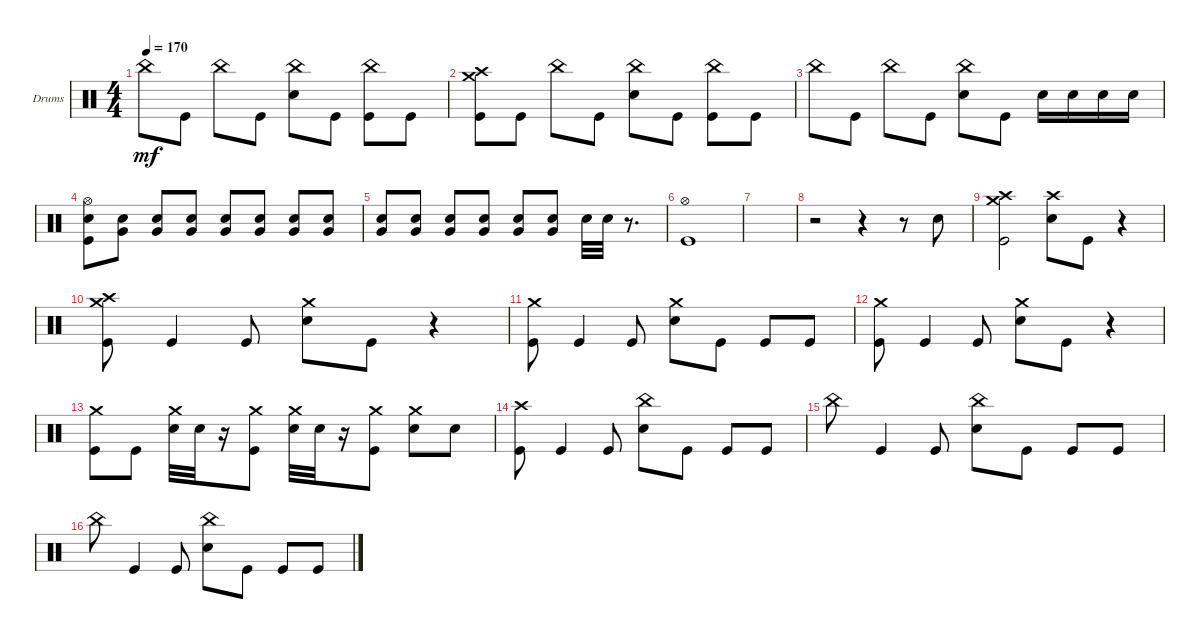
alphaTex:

\defaultSystemsLayout 4
\bracketExtendMode groupsimilarinstruments
\firstSystemTrackNameOrientation horizontal
\otherSystemsTrackNameOrientation horizontal
\track ("Drumkit" "Drums") {instrument percussion}
\staff {score}
\articulation defaults
\ts (4 4)
\tempo 170
\clef neutral
\ks c "China (hit)".8{dy mf} "Kick (hit)".8 "China (hit)".8 "Kick (hit)".8
("Snare (hit) 2" "China (hit)").8 "Kick (hit)".8 ("Kick (hit)" "China (hit)").8 "Kick (hit)".8 |
("Kick (hit)" "Crash high (hit)" "Crash medium (hit)").8 "Kick (hit)".8 "China (hit)".8 "Kick (hit)".8 ("Snare (hit) 2" "China (hit)").8 "Kick (hit)".8 ("Kick (hit)" "China (hit)").8 "Kick (hit)".8 |
"China (hit)".8 "Kick (hit)".8 "China (hit)".8 "Kick (hit)".8 ("Snare (hit) 2" "China (hit)").8 "Kick (hit)".8 "Snare (hit) 2".16 "Snare (hit) 2".16 "Snare (hit) 2".16 "Snare (hit) 2".16 |
("Hi-Hat (open)" "Snare (hit) 2" "Kick (hit)").8 ("Snare (hit) 2" "Very Low Tom (hit)").8 ("Snare (hit) 2" "Very Low Tom (hit)").8 ("Snare (hit) 2" "Very Low Tom (hit)").8 ("Snare (hit) 2" "Very Low Tom (hit)").8 ("Snare (hit) 2" "Very Low Tom (hit)").8 ("Snare (hit) 2" "Very Low Tom (hit)").8 ("Snare (hit) 2" "Very Low Tom (hit)").8 |
("Snare (hit) 2" "Very Low Tom (hit)").8 ("Snare (hit) 2" "Very Low Tom (hit)").8 ("Snare (hit) 2" "Very Low Tom (hit)").8 ("Snare (hit) 2" "Very Low Tom (hit)").8 ("Snare (hit) 2" "Very Low Tom (hit)").8 ("Snare (hit) 2" "Very Low Tom (hit)").8 "Snare (hit) 2".32 "Snare (hit) 2".32 r.8{d} |
("Kick (hit)" "Hi-Hat (open)").1 |
|
r.2 r.4 r.8 "Snare (hit) 2".8 |
("Crash high (hit)" "Crash medium (hit)" "Kick (hit)").2 ("Snare (hit) 2" "Crash high (hit)").8 "Kick (hit)".8 r.4 |
("Kick (hit)" "Crash high (hit)" "Crash medium (hit)").8 "Kick (hit)".4 "Kick (hit)".8 ("Snare (hit) 2" "Crash medium (hit)").8 "Kick (hit)".8 r.4 |
("Kick (hit)" "Crash medium (hit)").8 "Kick (hit)".4 "Kick (hit)".8 ("Snare (hit) 2" "Crash medium (hit)").8 "Kick (hit)".8 "Kick (hit)".8 "Kick (hit)".8 |
("Kick (hit)" "Crash medium (hit)").8 "Kick (hit)".4 "Kick (hit)".8 ("Snare (hit) 2" "Crash medium (hit)").8 "Kick (hit)".8 r.4 |
("Kick (hit)" "Crash medium (hit)").8 "Kick (hit)".8 ("Snare (hit) 2" "Crash medium (hit)").32 "Snare (hit) 2".32 r.16 ("Kick (hit)" "Crash medium (hit)").8 ("Snare (hit) 2" "Crash medium (hit)").32 "Snare (hit) 2".32 r.16 ("Kick (hit)" "Crash medium (hit)").8 ("Snare (hit) 2" "Crash medium (hit)").8 "Snare (hit) 2".8 |
("Kick (hit)" "Crash high (hit)").8 "Kick (hit)".4 "Kick (hit)".8 ("Snare (hit) 2" "China (hit)").8 "Kick (hit)".8 "Kick (hit)".8 "Kick (hit)".8 |
"China (hit)".8 "Kick (hit)".4 "Kick (hit)".8 ("Snare (hit) 2" "China (hit)").8 "Kick (hit)".8 "Kick (hit)".8 "Kick (hit)".8 |
"China (hit)".8 "Kick (hit)".4 "Kick (hit)".8 ("Snare (hit) 2" "China (hit)").8 "Kick (hit)".8 "Kick (hit)".8 "Kick (hit)".8
